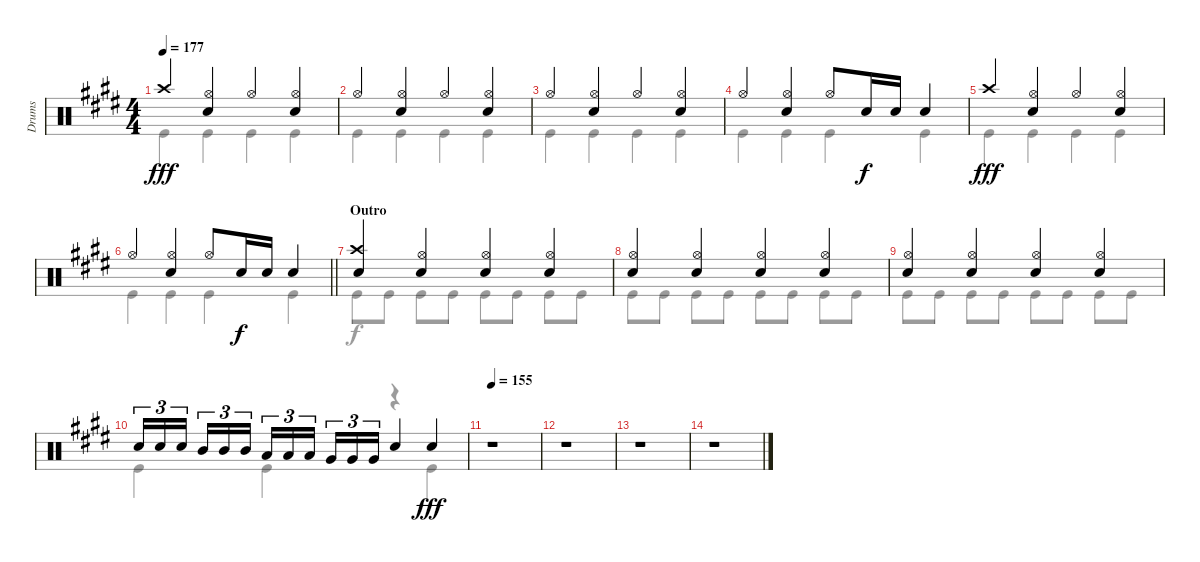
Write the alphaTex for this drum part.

\track ("Drums" "Drums") {instrument percussion}
\staff {score}
\articulation defaults
\voice
\ts (4 4)
\tempo 177
\clef neutral
\ks e "Crash high (hit)".4{dy fff}
("Hi-Hat (open)" "Snare (hit) 2").4 "Hi-Hat (open)".4 ("Hi-Hat (open)" "Snare (hit) 2").4 |
"Hi-Hat (open)".4 ("Hi-Hat (open)" "Snare (hit) 2").4 "Hi-Hat (open)".4 ("Hi-Hat (open)" "Snare (hit) 2").4 |
"Hi-Hat (open)".4 ("Hi-Hat (open)" "Snare (hit) 2").4 "Hi-Hat (open)".4 ("Hi-Hat (open)" "Snare (hit) 2").4 |
"Hi-Hat (open)".4 ("Hi-Hat (open)" "Snare (hit) 2").4 "Hi-Hat (open)".8 "Snare (hit) 2".16{dy f} "Snare (hit) 2".16 "Snare (hit) 2".4 |
"Crash high (hit)".4{dy fff} ("Hi-Hat (open)" "Snare (hit) 2").4 "Hi-Hat (open)".4 ("Hi-Hat (open)" "Snare (hit) 2").4 |
\barLineRight lightlight "Hi-Hat (open)".4
("Hi-Hat (open)" "Snare (hit) 2").4 "Hi-Hat (open)".8 "Snare (hit) 2".16{dy f} "Snare (hit) 2".16 "Snare (hit) 2".4 |
\section ("" "Outro")
("Crash high (hit)" "Snare (hit) 2").4 ("Hi-Hat (open)" "Snare (hit) 2").4 ("Hi-Hat (open)" "Snare (hit) 2").4 ("Hi-Hat (open)" "Snare (hit) 2").4 |
("Hi-Hat (open)" "Snare (hit) 2").4 ("Hi-Hat (open)" "Snare (hit) 2").4 ("Hi-Hat (open)" "Snare (hit) 2").4 ("Hi-Hat (open)" "Snare (hit) 2").4 |
("Hi-Hat (open)" "Snare (hit) 2").4 ("Hi-Hat (open)" "Snare (hit) 2").4 ("Hi-Hat (open)" "Snare (hit) 2").4 ("Hi-Hat (open)" "Snare (hit) 2").4 |
"Snare (hit) 2".16{tu (3 2)} "Snare (hit) 2".16{tu (3 2)} "Snare (hit) 2".16{tu (3 2) beam splitsecondary} "Mid Tom (hit)".16{tu (3 2)} "Mid Tom (hit)".16{tu (3 2)} "Mid Tom (hit)".16{tu (3 2)} "Low Tom (hit)".16{tu (3 2)} "Low Tom (hit)".16{tu (3 2)} "Low Tom (hit)".16{tu (3 2) beam splitsecondary} "Very Low Tom (hit)".16{tu (3 2)} "Very Low Tom (hit)".16{tu (3 2)} "Very Low Tom (hit)".16{tu (3 2)} "Snare (hit) 2".4 "Snare (hit) 2".4{dy fff} |
\tempo 155
r.1 |
r.1 |
r.1 |
r.1
\voice
\clef neutral
\ottava regular
\simile none
\ks e "Kick (hit)".4{dy fff} "Kick (hit)".4 "Kick (hit)".4 "Kick (hit)".4
|
"Kick (hit)".4 "Kick (hit)".4 "Kick (hit)".4 "Kick (hit)".4 |
"Kick (hit)".4 "Kick (hit)".4 "Kick (hit)".4 "Kick (hit)".4 |
"Kick (hit)".4 "Kick (hit)".4 "Kick (hit)".4 "Kick (hit)".4 |
"Kick (hit)".4 "Kick (hit)".4 "Kick (hit)".4 "Kick (hit)".4 |
\barLineRight lightlight "Kick (hit)".4 "Kick (hit)".4 "Kick (hit)".4 "Kick (hit)".4
|
"Kick (hit)".8{dy f} "Kick (hit)".8 "Kick (hit)".8 "Kick (hit)".8 "Kick (hit)".8 "Kick (hit)".8 "Kick (hit)".8 "Kick (hit)".8 |
"Kick (hit)".8 "Kick (hit)".8 "Kick (hit)".8 "Kick (hit)".8 "Kick (hit)".8 "Kick (hit)".8 "Kick (hit)".8 "Kick (hit)".8 |
"Kick (hit)".8 "Kick (hit)".8 "Kick (hit)".8 "Kick (hit)".8 "Kick (hit)".8 "Kick (hit)".8 "Kick (hit)".8 "Kick (hit)".8 |
"Kick (hit)".4 "Kick (hit)".4 r.4 "Kick (hit)".4 |
r.1 |
r.1 |
r.1 |
r.1
